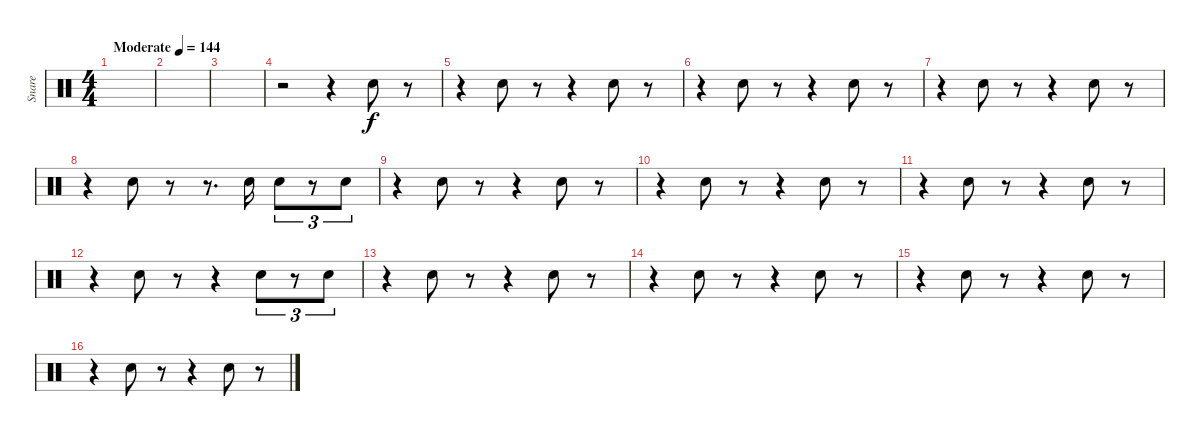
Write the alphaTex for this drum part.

\track ("Snare" "Snare") {instrument percussion}
\staff {score}
\articulation defaults
\ts (4 4)
\tempo (144 "Moderate")
\clef neutral
\ks c
|
|
|
r.2 r.4 "Snare (hit) 2".8 r.8 |
r.4 "Snare (hit) 2".8 r.8 r.4 "Snare (hit) 2".8 r.8 |
r.4 "Snare (hit) 2".8 r.8 r.4 "Snare (hit) 2".8 r.8 |
r.4 "Snare (hit) 2".8 r.8 r.4 "Snare (hit) 2".8 r.8 |
r.4 "Snare (hit) 2".8 r.8 r.8{d} "Snare (hit) 2".16 "Snare (hit) 2".8{tu (3 2)} r.8{tu (3 2)} "Snare (hit) 2".8{tu (3 2)} |
r.4 "Snare (hit) 2".8 r.8 r.4 "Snare (hit) 2".8 r.8 |
r.4 "Snare (hit) 2".8 r.8 r.4 "Snare (hit) 2".8 r.8 |
r.4 "Snare (hit) 2".8 r.8 r.4 "Snare (hit) 2".8 r.8 |
r.4 "Snare (hit) 2".8 r.8 r.4 "Snare (hit) 2".8{tu (3 2)} r.8{tu (3 2)} "Snare (hit) 2".8{tu (3 2)} |
r.4 "Snare (hit) 2".8 r.8 r.4 "Snare (hit) 2".8 r.8 |
r.4 "Snare (hit) 2".8 r.8 r.4 "Snare (hit) 2".8 r.8 |
r.4 "Snare (hit) 2".8 r.8 r.4 "Snare (hit) 2".8 r.8 |
r.4 "Snare (hit) 2".8 r.8 r.4 "Snare (hit) 2".8 r.8
